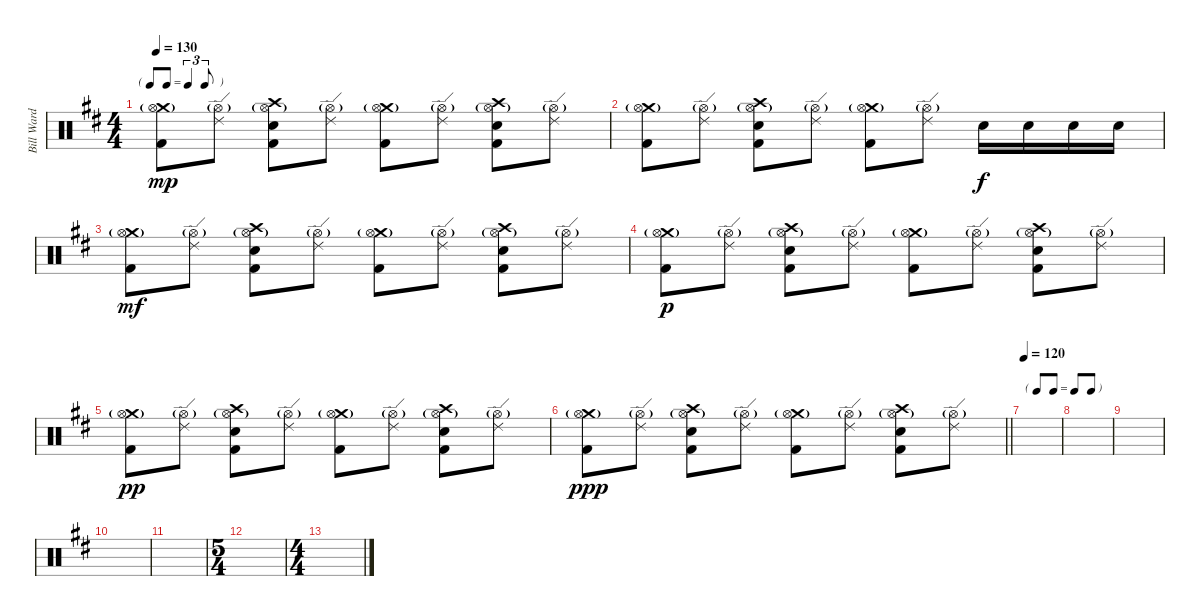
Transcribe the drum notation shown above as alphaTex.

\track ("Bill Ward" "Bill Ward") {instrument percussion}
\staff {score}
\articulation defaults
\ts (4 4)
\tf triplet8th
\tempo 130
\clef neutral
\ks d
("Crash medium (hit)" "Hi-Hat (open)"{g} "Kick (hit) 2").8{dy mp} ("Ride (edge) 2" "Hi-Hat (open)"{g}).8 ("Crash high (hit)" "Hi-Hat (open)"{g} "Snare (hit) 2" "Kick (hit) 2").8 ("Ride (edge) 2" "Hi-Hat (open)"{g}).8 ("Crash medium (hit)" "Hi-Hat (open)"{g} "Kick (hit) 2").8 ("Ride (edge) 2" "Hi-Hat (open)"{g}).8 ("Crash high (hit)" "Hi-Hat (open)"{g} "Snare (hit) 2" "Kick (hit) 2").8 ("Ride (edge) 2" "Hi-Hat (open)"{g}).8 |
("Crash medium (hit)" "Hi-Hat (open)"{g} "Kick (hit) 2").8 ("Ride (edge) 2" "Hi-Hat (open)"{g}).8 ("Crash high (hit)" "Hi-Hat (open)"{g} "Snare (hit) 2" "Kick (hit) 2").8 ("Ride (edge) 2" "Hi-Hat (open)"{g}).8 ("Crash medium (hit)" "Hi-Hat (open)"{g} "Kick (hit) 2").8 ("Ride (edge) 2" "Hi-Hat (open)"{g}).8 "Snare (hit) 2".16{dy f} "Snare (hit) 2".16 "Snare (hit) 2".16 "Snare (hit) 2".16 |
("Crash medium (hit)" "Hi-Hat (open)"{g} "Kick (hit) 2").8{dy mf} ("Ride (edge) 2" "Hi-Hat (open)"{g}).8 ("Crash high (hit)" "Hi-Hat (open)"{g} "Snare (hit) 2" "Kick (hit) 2").8 ("Ride (edge) 2" "Hi-Hat (open)"{g}).8 ("Crash medium (hit)" "Hi-Hat (open)"{g} "Kick (hit) 2").8 ("Ride (edge) 2" "Hi-Hat (open)"{g}).8 ("Crash high (hit)" "Hi-Hat (open)"{g} "Snare (hit) 2" "Kick (hit) 2").8 ("Ride (edge) 2" "Hi-Hat (open)"{g}).8 |
("Crash medium (hit)" "Hi-Hat (open)"{g} "Kick (hit) 2").8{dy p} ("Ride (edge) 2" "Hi-Hat (open)"{g}).8 ("Crash high (hit)" "Hi-Hat (open)"{g} "Snare (hit) 2" "Kick (hit) 2").8 ("Ride (edge) 2" "Hi-Hat (open)"{g}).8 ("Crash medium (hit)" "Hi-Hat (open)"{g} "Kick (hit) 2").8 ("Ride (edge) 2" "Hi-Hat (open)"{g}).8 ("Crash high (hit)" "Hi-Hat (open)"{g} "Snare (hit) 2" "Kick (hit) 2").8 ("Ride (edge) 2" "Hi-Hat (open)"{g}).8 |
("Crash medium (hit)" "Hi-Hat (open)"{g} "Kick (hit) 2").8{dy pp} ("Ride (edge) 2" "Hi-Hat (open)"{g}).8 ("Crash high (hit)" "Hi-Hat (open)"{g} "Snare (hit) 2" "Kick (hit) 2").8 ("Ride (edge) 2" "Hi-Hat (open)"{g}).8 ("Crash medium (hit)" "Hi-Hat (open)"{g} "Kick (hit) 2").8 ("Ride (edge) 2" "Hi-Hat (open)"{g}).8 ("Crash high (hit)" "Hi-Hat (open)"{g} "Snare (hit) 2" "Kick (hit) 2").8 ("Ride (edge) 2" "Hi-Hat (open)"{g}).8 |
\barLineRight lightlight
("Crash medium (hit)" "Hi-Hat (open)"{g} "Kick (hit) 2").8{dy ppp} ("Ride (edge) 2" "Hi-Hat (open)"{g}).8 ("Crash high (hit)" "Hi-Hat (open)"{g} "Snare (hit) 2" "Kick (hit) 2").8 ("Ride (edge) 2" "Hi-Hat (open)"{g}).8 ("Crash medium (hit)" "Hi-Hat (open)"{g} "Kick (hit) 2").8 ("Ride (edge) 2" "Hi-Hat (open)"{g}).8 ("Crash high (hit)" "Hi-Hat (open)"{g} "Snare (hit) 2" "Kick (hit) 2").8 ("Ride (edge) 2" "Hi-Hat (open)"{g}).8 |
\tf none
\tempo 120
|
|
|
|
|
\ts (5 4)
|
\ts (4 4)
